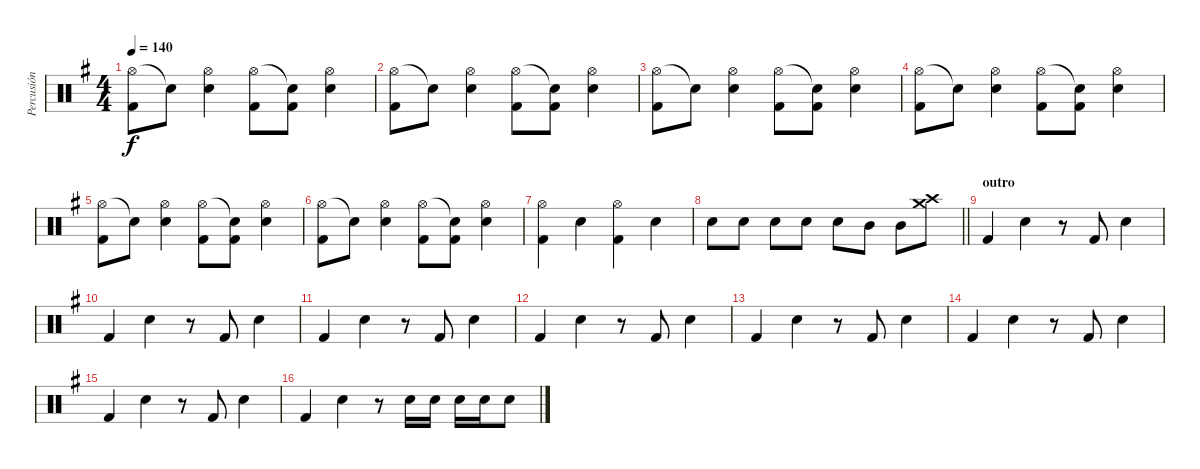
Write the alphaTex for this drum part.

\track ("Percusión" "Percusión") {instrument percussion}
\staff {score}
\articulation defaults
\ts (4 4)
\tempo 140
\clef neutral
\ks g
("Hi-Hat (open)" "Kick (hit) 2").8{dy f} "Snare (hit)"{t}.8 ("Hi-Hat (open)" "Electric Snare (hit)").4 ("Hi-Hat (open)" "Kick (hit) 2").8 ("Snare (hit)"{t} "Kick (hit) 2").8 ("Hi-Hat (open)" "Electric Snare (hit)").4 |
("Hi-Hat (open)" "Kick (hit) 2").8 "Snare (hit)"{t}.8 ("Hi-Hat (open)" "Electric Snare (hit)").4 ("Hi-Hat (open)" "Kick (hit) 2").8 ("Snare (hit)"{t} "Kick (hit) 2").8 ("Hi-Hat (open)" "Electric Snare (hit)").4 |
("Hi-Hat (open)" "Kick (hit) 2").8 "Snare (hit)"{t}.8 ("Hi-Hat (open)" "Electric Snare (hit)").4 ("Hi-Hat (open)" "Kick (hit) 2").8 ("Snare (hit)"{t} "Kick (hit) 2").8 ("Hi-Hat (open)" "Electric Snare (hit)").4 |
("Hi-Hat (open)" "Kick (hit) 2").8 "Snare (hit)"{t}.8 ("Hi-Hat (open)" "Electric Snare (hit)").4 ("Hi-Hat (open)" "Kick (hit) 2").8 ("Snare (hit)"{t} "Kick (hit) 2").8 ("Hi-Hat (open)" "Electric Snare (hit)").4 |
("Hi-Hat (open)" "Kick (hit) 2").8 "Snare (hit)"{t}.8 ("Hi-Hat (open)" "Electric Snare (hit)").4 ("Hi-Hat (open)" "Kick (hit) 2").8 ("Snare (hit)"{t} "Kick (hit) 2").8 ("Hi-Hat (open)" "Electric Snare (hit)").4 |
("Hi-Hat (open)" "Kick (hit) 2").8 "Snare (hit)"{t}.8 ("Hi-Hat (open)" "Electric Snare (hit)").4 ("Hi-Hat (open)" "Kick (hit) 2").8 ("Snare (hit)"{t} "Kick (hit) 2").8 ("Hi-Hat (open)" "Electric Snare (hit)").4 |
("Hi-Hat (open)" "Kick (hit) 2").4 "Electric Snare (hit)".4 ("Hi-Hat (open)" "Kick (hit) 2").4 "Electric Snare (hit)".4 |
\barLineRight lightlight "Electric Snare (hit)".8 "Electric Snare (hit)".8 "Electric Snare (hit)".8 "Electric Snare (hit)".8 "Electric Snare (hit)".8 "Mid Tom (hit)".8 "Mid Tom (hit)".8
("Crash medium (hit)" "Crash high (hit)").8 |
\section ("" "outro")
"Kick (hit) 2".4 "Snare (hit) 2".4 r.8 "Kick (hit) 2".8 "Snare (hit) 2".4 |
"Kick (hit) 2".4 "Snare (hit) 2".4 r.8 "Kick (hit) 2".8 "Snare (hit) 2".4 |
"Kick (hit) 2".4 "Snare (hit) 2".4 r.8 "Kick (hit) 2".8 "Snare (hit) 2".4 |
"Kick (hit) 2".4 "Snare (hit) 2".4 r.8 "Kick (hit) 2".8 "Snare (hit) 2".4 |
"Kick (hit) 2".4 "Snare (hit) 2".4 r.8 "Kick (hit) 2".8 "Snare (hit) 2".4 |
"Kick (hit) 2".4 "Snare (hit) 2".4 r.8 "Kick (hit) 2".8 "Snare (hit) 2".4 |
"Kick (hit) 2".4 "Snare (hit) 2".4 r.8 "Kick (hit) 2".8 "Snare (hit) 2".4 |
"Kick (hit) 2".4 "Snare (hit) 2".4 r.8 "Snare (hit) 2".16 "Snare (hit) 2".16 "Snare (hit) 2".16 "Snare (hit) 2".16 "Snare (hit) 2".8
